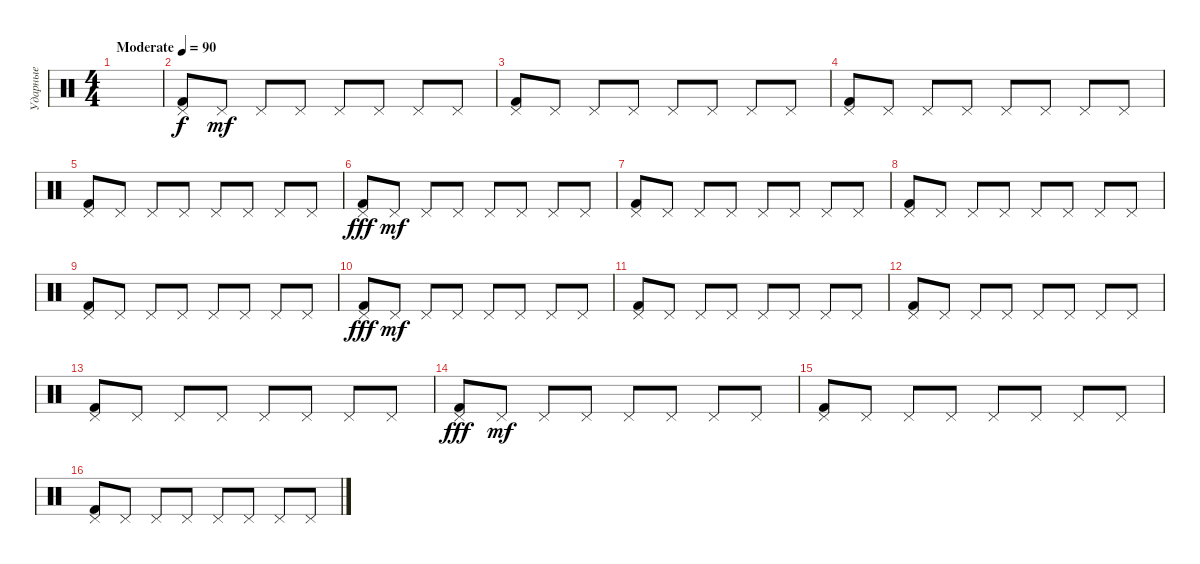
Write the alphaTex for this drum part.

\track ("Ударные" "Ударные") {instrument percussion}
\staff {score}
\articulation defaults
\ts (4 4)
\tempo (90 "Moderate")
\clef neutral
\ks c
|
("Pedal Hi-Hat (hit)" "Kick (hit) 2").8 "Pedal Hi-Hat (hit)".8{dy mf} "Pedal Hi-Hat (hit)".8 "Pedal Hi-Hat (hit)".8 "Pedal Hi-Hat (hit)".8 "Pedal Hi-Hat (hit)".8 "Pedal Hi-Hat (hit)".8 "Pedal Hi-Hat (hit)".8 |
("Pedal Hi-Hat (hit)" "Kick (hit) 2").8 "Pedal Hi-Hat (hit)".8 "Pedal Hi-Hat (hit)".8 "Pedal Hi-Hat (hit)".8 "Pedal Hi-Hat (hit)".8 "Pedal Hi-Hat (hit)".8 "Pedal Hi-Hat (hit)".8 "Pedal Hi-Hat (hit)".8 |
("Pedal Hi-Hat (hit)" "Kick (hit) 2").8 "Pedal Hi-Hat (hit)".8 "Pedal Hi-Hat (hit)".8 "Pedal Hi-Hat (hit)".8 "Pedal Hi-Hat (hit)".8 "Pedal Hi-Hat (hit)".8 "Pedal Hi-Hat (hit)".8 "Pedal Hi-Hat (hit)".8 |
("Pedal Hi-Hat (hit)" "Kick (hit) 2").8 "Pedal Hi-Hat (hit)".8 "Pedal Hi-Hat (hit)".8 "Pedal Hi-Hat (hit)".8 "Pedal Hi-Hat (hit)".8 "Pedal Hi-Hat (hit)".8 "Pedal Hi-Hat (hit)".8 "Pedal Hi-Hat (hit)".8 |
("Pedal Hi-Hat (hit)" "Kick (hit) 2").8{dy fff} "Pedal Hi-Hat (hit)".8{dy mf} "Pedal Hi-Hat (hit)".8 "Pedal Hi-Hat (hit)".8 "Pedal Hi-Hat (hit)".8 "Pedal Hi-Hat (hit)".8 "Pedal Hi-Hat (hit)".8 "Pedal Hi-Hat (hit)".8 |
("Pedal Hi-Hat (hit)" "Kick (hit) 2").8 "Pedal Hi-Hat (hit)".8 "Pedal Hi-Hat (hit)".8 "Pedal Hi-Hat (hit)".8 "Pedal Hi-Hat (hit)".8 "Pedal Hi-Hat (hit)".8 "Pedal Hi-Hat (hit)".8 "Pedal Hi-Hat (hit)".8 |
("Pedal Hi-Hat (hit)" "Kick (hit) 2").8 "Pedal Hi-Hat (hit)".8 "Pedal Hi-Hat (hit)".8 "Pedal Hi-Hat (hit)".8 "Pedal Hi-Hat (hit)".8 "Pedal Hi-Hat (hit)".8 "Pedal Hi-Hat (hit)".8 "Pedal Hi-Hat (hit)".8 |
("Pedal Hi-Hat (hit)" "Kick (hit) 2").8 "Pedal Hi-Hat (hit)".8 "Pedal Hi-Hat (hit)".8 "Pedal Hi-Hat (hit)".8 "Pedal Hi-Hat (hit)".8 "Pedal Hi-Hat (hit)".8 "Pedal Hi-Hat (hit)".8 "Pedal Hi-Hat (hit)".8 |
("Pedal Hi-Hat (hit)" "Kick (hit) 2").8{dy fff} "Pedal Hi-Hat (hit)".8{dy mf} "Pedal Hi-Hat (hit)".8 "Pedal Hi-Hat (hit)".8 "Pedal Hi-Hat (hit)".8 "Pedal Hi-Hat (hit)".8 "Pedal Hi-Hat (hit)".8 "Pedal Hi-Hat (hit)".8 |
("Pedal Hi-Hat (hit)" "Kick (hit) 2").8 "Pedal Hi-Hat (hit)".8 "Pedal Hi-Hat (hit)".8 "Pedal Hi-Hat (hit)".8 "Pedal Hi-Hat (hit)".8 "Pedal Hi-Hat (hit)".8 "Pedal Hi-Hat (hit)".8 "Pedal Hi-Hat (hit)".8 |
("Pedal Hi-Hat (hit)" "Kick (hit) 2").8 "Pedal Hi-Hat (hit)".8 "Pedal Hi-Hat (hit)".8 "Pedal Hi-Hat (hit)".8 "Pedal Hi-Hat (hit)".8 "Pedal Hi-Hat (hit)".8 "Pedal Hi-Hat (hit)".8 "Pedal Hi-Hat (hit)".8 |
("Pedal Hi-Hat (hit)" "Kick (hit) 2").8 "Pedal Hi-Hat (hit)".8 "Pedal Hi-Hat (hit)".8 "Pedal Hi-Hat (hit)".8 "Pedal Hi-Hat (hit)".8 "Pedal Hi-Hat (hit)".8 "Pedal Hi-Hat (hit)".8 "Pedal Hi-Hat (hit)".8 |
("Pedal Hi-Hat (hit)" "Kick (hit) 2").8{dy fff} "Pedal Hi-Hat (hit)".8{dy mf} "Pedal Hi-Hat (hit)".8 "Pedal Hi-Hat (hit)".8 "Pedal Hi-Hat (hit)".8 "Pedal Hi-Hat (hit)".8 "Pedal Hi-Hat (hit)".8 "Pedal Hi-Hat (hit)".8 |
("Pedal Hi-Hat (hit)" "Kick (hit) 2").8 "Pedal Hi-Hat (hit)".8 "Pedal Hi-Hat (hit)".8 "Pedal Hi-Hat (hit)".8 "Pedal Hi-Hat (hit)".8 "Pedal Hi-Hat (hit)".8 "Pedal Hi-Hat (hit)".8 "Pedal Hi-Hat (hit)".8 |
("Pedal Hi-Hat (hit)" "Kick (hit) 2").8 "Pedal Hi-Hat (hit)".8 "Pedal Hi-Hat (hit)".8 "Pedal Hi-Hat (hit)".8 "Pedal Hi-Hat (hit)".8 "Pedal Hi-Hat (hit)".8 "Pedal Hi-Hat (hit)".8 "Pedal Hi-Hat (hit)".8
